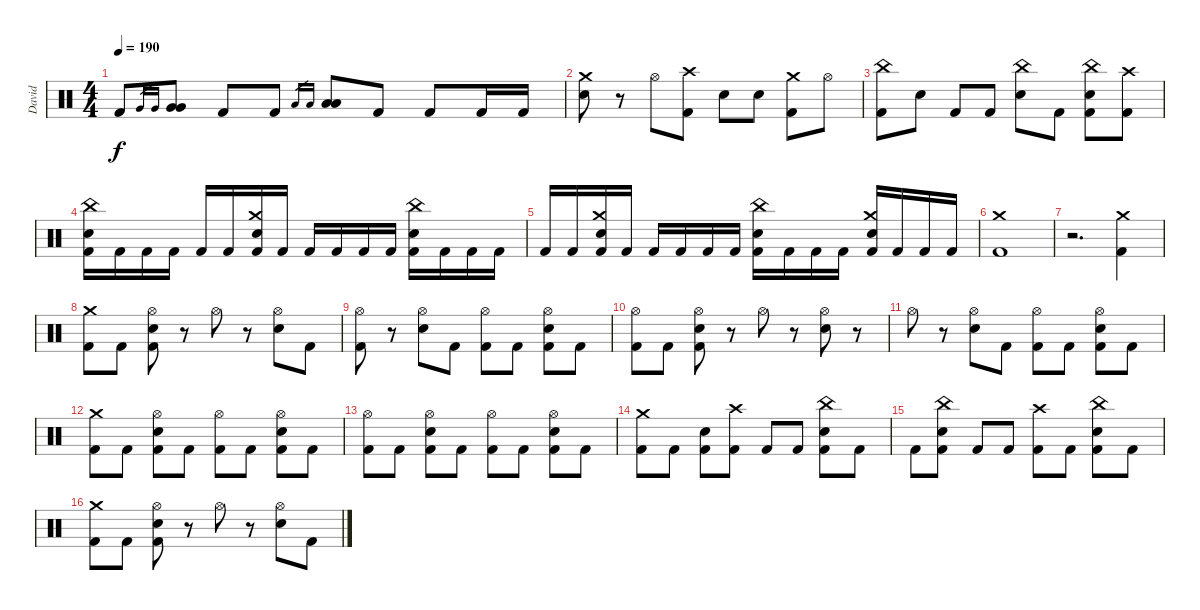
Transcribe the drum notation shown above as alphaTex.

\track ("David" "David") {instrument percussion}
\staff {score}
\articulation defaults
\ts (4 4)
\tempo 190
\clef neutral
\ks c "Kick (hit) 2".8{dy f} "Very Low Tom (hit)".16{gr} "Very Low Tom (hit)".16{gr}
("Very Low Tom (hit)" "Very Low Tom (hit)").8 "Kick (hit) 2".8 "Kick (hit) 2".8 "Low Floor Tom (hit)".16{gr} "Low Floor Tom (hit)".16{gr} ("Low Floor Tom (hit)" "Low Floor Tom (hit)").8 "Kick (hit) 2".8 "Kick (hit) 2".8 "Kick (hit) 2".16 "Kick (hit) 2".16 |
("Crash medium (hit)" "Electric Snare (hit)").8 r.8 "Hi-Hat (open)".8 ("Crash high (hit)" "Kick (hit) 2").8 "Electric Snare (hit)".8 "Electric Snare (hit)".8 ("Crash medium (hit)" "Kick (hit) 2").8 "Hi-Hat (open)".8 |
("China (hit)" "Kick (hit) 2").8 "Electric Snare (hit)".8 "Kick (hit) 2".8 "Kick (hit) 2".8 ("China (hit)" "Electric Snare (hit)").8 "Kick (hit) 2".8 ("China (hit)" "Electric Snare (hit)" "Kick (hit) 2").8 ("Crash high (hit)" "Kick (hit) 2").8 |
("China (hit)" "Electric Snare (hit)" "Kick (hit) 2").16 "Kick (hit) 2".16 "Kick (hit) 2".16 "Kick (hit) 2".16 "Kick (hit) 2".16 "Kick (hit) 2".16 ("Crash medium (hit)" "Electric Snare (hit)" "Kick (hit) 2").16 "Kick (hit) 2".16 "Kick (hit) 2".16 "Kick (hit) 2".16 "Kick (hit) 2".16 "Kick (hit) 2".16 ("China (hit)" "Electric Snare (hit)" "Kick (hit) 2").16 "Kick (hit) 2".16 "Kick (hit) 2".16 "Kick (hit) 2".16 |
"Kick (hit) 2".16 "Kick (hit) 2".16 ("Crash medium (hit)" "Electric Snare (hit)" "Kick (hit) 2").16 "Kick (hit) 2".16 "Kick (hit) 2".16 "Kick (hit) 2".16 "Kick (hit) 2".16 "Kick (hit) 2".16 ("China (hit)" "Electric Snare (hit)" "Kick (hit) 2").16 "Kick (hit) 2".16 "Kick (hit) 2".16 "Kick (hit) 2".16 ("Crash medium (hit)" "Electric Snare (hit)" "Kick (hit) 2").16 "Kick (hit) 2".16 "Kick (hit) 2".16 "Kick (hit) 2".16 |
("Crash medium (hit)" "Kick (hit) 2").1 |
r.2{d} ("Crash medium (hit)" "Kick (hit) 2").4 |
("Crash medium (hit)" "Kick (hit) 2").8 "Kick (hit) 2".8 ("Hi-Hat (open)" "Electric Snare (hit)" "Kick (hit) 2").8 r.8 "Hi-Hat (open)".8 r.8 ("Hi-Hat (open)" "Electric Snare (hit)").8 "Kick (hit) 2".8 |
("Hi-Hat (open)" "Kick (hit) 2").8 r.8 ("Hi-Hat (open)" "Electric Snare (hit)").8 "Kick (hit) 2".8 ("Hi-Hat (open)" "Kick (hit) 2").8 "Kick (hit) 2".8 ("Hi-Hat (open)" "Electric Snare (hit)" "Kick (hit) 2").8 "Kick (hit) 2".8 |
("Hi-Hat (open)" "Kick (hit) 2").8 "Kick (hit) 2".8 ("Hi-Hat (open)" "Electric Snare (hit)" "Kick (hit) 2").8 r.8 "Hi-Hat (open)".8 r.8 ("Hi-Hat (open)" "Electric Snare (hit)").8 r.8 |
"Hi-Hat (open)".8 r.8 ("Hi-Hat (open)" "Electric Snare (hit)").8 "Kick (hit) 2".8 ("Hi-Hat (open)" "Kick (hit) 2").8 "Kick (hit) 2".8 ("Hi-Hat (open)" "Electric Snare (hit)" "Kick (hit) 2").8 "Kick (hit) 2".8 |
("Crash medium (hit)" "Kick (hit) 2").8 "Kick (hit) 2".8 ("Hi-Hat (open)" "Electric Snare (hit)" "Kick (hit) 2").8 "Kick (hit) 2".8 ("Hi-Hat (open)" "Kick (hit) 2").8 "Kick (hit) 2".8 ("Hi-Hat (open)" "Electric Snare (hit)" "Kick (hit) 2").8 "Kick (hit) 2".8 |
("Hi-Hat (open)" "Kick (hit) 2").8 "Kick (hit) 2".8 ("Hi-Hat (open)" "Electric Snare (hit)" "Kick (hit) 2").8 "Kick (hit) 2".8 ("Hi-Hat (open)" "Kick (hit) 2").8 "Kick (hit) 2".8 ("Hi-Hat (open)" "Electric Snare (hit)" "Kick (hit) 2").8 "Kick (hit) 2".8 |
("Crash medium (hit)" "Kick (hit) 2").8 "Kick (hit) 2".8 ("Electric Snare (hit)" "Kick (hit) 2").8 ("Crash high (hit)" "Kick (hit) 2").8 "Kick (hit) 2".8 "Kick (hit) 2".8 ("China (hit)" "Electric Snare (hit)" "Kick (hit) 2").8 "Kick (hit) 2".8 |
"Kick (hit) 2".8 ("China (hit)" "Electric Snare (hit)" "Kick (hit) 2").8 "Kick (hit) 2".8 "Kick (hit) 2".8 ("Crash high (hit)" "Kick (hit) 2").8 "Kick (hit) 2".8 ("China (hit)" "Electric Snare (hit)" "Kick (hit) 2").8 "Kick (hit) 2".8 |
("Crash medium (hit)" "Kick (hit) 2").8 "Kick (hit) 2".8 ("Hi-Hat (open)" "Electric Snare (hit)" "Kick (hit) 2").8 r.8 "Hi-Hat (open)".8 r.8 ("Hi-Hat (open)" "Electric Snare (hit)").8 "Kick (hit) 2".8
